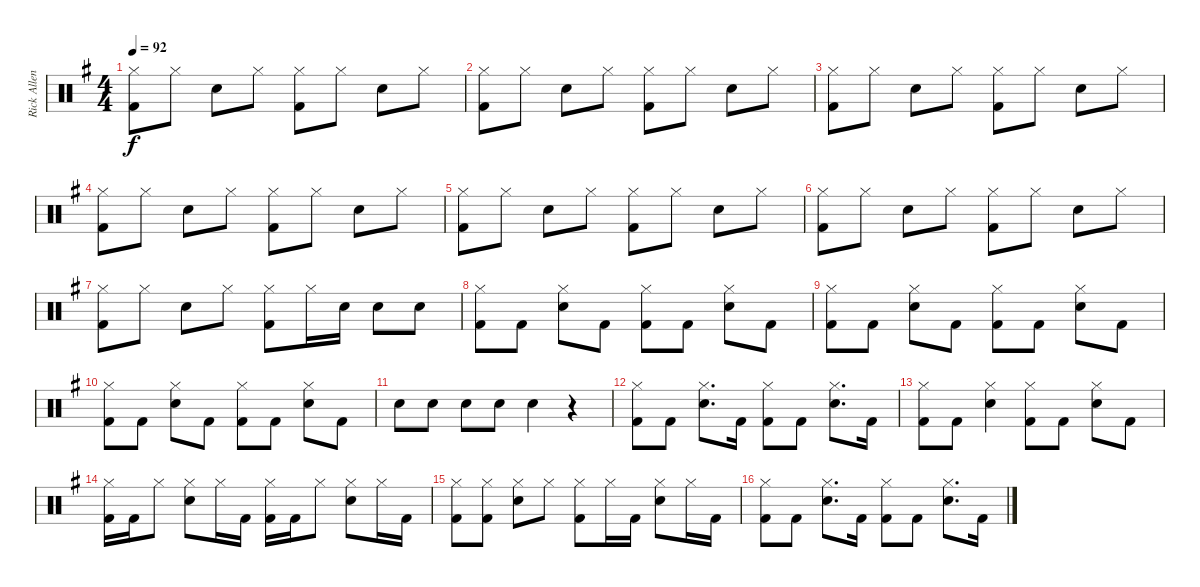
\track ("Rick Allen" "Rick Allen") {instrument percussion}
\staff {score}
\articulation defaults
\ts (4 4)
\tempo 92
\clef neutral
\ks eminor
("Hi-Hat (closed)" "Kick (hit) 2").8{dy f} "Hi-Hat (closed)".8 "Electric Snare (hit)".8 "Hi-Hat (closed)".8 ("Hi-Hat (closed)" "Kick (hit) 2").8 "Hi-Hat (closed)".8 "Electric Snare (hit)".8 "Hi-Hat (closed)".8 |
("Hi-Hat (closed)" "Kick (hit) 2").8 "Hi-Hat (closed)".8 "Electric Snare (hit)".8 "Hi-Hat (closed)".8 ("Hi-Hat (closed)" "Kick (hit) 2").8 "Hi-Hat (closed)".8 "Electric Snare (hit)".8 "Hi-Hat (closed)".8 |
("Hi-Hat (closed)" "Kick (hit) 2").8 "Hi-Hat (closed)".8 "Electric Snare (hit)".8 "Hi-Hat (closed)".8 ("Hi-Hat (closed)" "Kick (hit) 2").8 "Hi-Hat (closed)".8 "Electric Snare (hit)".8 "Hi-Hat (closed)".8 |
("Hi-Hat (closed)" "Kick (hit) 2").8 "Hi-Hat (closed)".8 "Electric Snare (hit)".8 "Hi-Hat (closed)".8 ("Hi-Hat (closed)" "Kick (hit) 2").8 "Hi-Hat (closed)".8 "Electric Snare (hit)".8 "Hi-Hat (closed)".8 |
("Hi-Hat (closed)" "Kick (hit) 2").8 "Hi-Hat (closed)".8 "Electric Snare (hit)".8 "Hi-Hat (closed)".8 ("Hi-Hat (closed)" "Kick (hit) 2").8 "Hi-Hat (closed)".8 "Electric Snare (hit)".8 "Hi-Hat (closed)".8 |
("Hi-Hat (closed)" "Kick (hit) 2").8 "Hi-Hat (closed)".8 "Electric Snare (hit)".8 "Hi-Hat (closed)".8 ("Hi-Hat (closed)" "Kick (hit) 2").8 "Hi-Hat (closed)".8 "Electric Snare (hit)".8 "Hi-Hat (closed)".8 |
("Hi-Hat (closed)" "Kick (hit) 2").8 "Hi-Hat (closed)".8 "Electric Snare (hit)".8 "Hi-Hat (closed)".8 ("Hi-Hat (closed)" "Kick (hit) 2").8 "Hi-Hat (closed)".16 "Electric Snare (hit)".16 "Electric Snare (hit)".8 "Electric Snare (hit)".8 |
("Hi-Hat (closed)" "Kick (hit) 2").8 "Kick (hit) 2".8 ("Hi-Hat (closed)" "Electric Snare (hit)").8 "Kick (hit) 2".8 ("Hi-Hat (closed)" "Kick (hit) 2").8 "Kick (hit) 2".8 ("Hi-Hat (closed)" "Electric Snare (hit)").8 "Kick (hit) 2".8 |
("Hi-Hat (closed)" "Kick (hit) 2").8 "Kick (hit) 2".8 ("Hi-Hat (closed)" "Electric Snare (hit)").8 "Kick (hit) 2".8 ("Hi-Hat (closed)" "Kick (hit) 2").8 "Kick (hit) 2".8 ("Hi-Hat (closed)" "Electric Snare (hit)").8 "Kick (hit) 2".8 |
("Hi-Hat (closed)" "Kick (hit) 2").8 "Kick (hit) 2".8 ("Hi-Hat (closed)" "Electric Snare (hit)").8 "Kick (hit) 2".8 ("Hi-Hat (closed)" "Kick (hit) 2").8 "Kick (hit) 2".8 ("Hi-Hat (closed)" "Electric Snare (hit)").8 "Kick (hit) 2".8 |
"Electric Snare (hit)".8 "Electric Snare (hit)".8 "Electric Snare (hit)".8 "Electric Snare (hit)".8 "Electric Snare (hit)".4 r.4 |
("Hi-Hat (closed)" "Kick (hit) 2").8 "Kick (hit) 2".8 ("Hi-Hat (closed)" "Electric Snare (hit)").8{d} "Kick (hit) 2".16 ("Hi-Hat (closed)" "Kick (hit) 2").8 "Kick (hit) 2".8 ("Hi-Hat (closed)" "Electric Snare (hit)").8{d} "Kick (hit) 2".16 |
("Hi-Hat (closed)" "Kick (hit) 2").8 "Kick (hit) 2".8 ("Hi-Hat (closed)" "Electric Snare (hit)").4 ("Hi-Hat (closed)" "Kick (hit) 2").8 "Kick (hit) 2".8 ("Hi-Hat (closed)" "Electric Snare (hit)").8 "Kick (hit) 2".8 |
("Hi-Hat (closed)" "Kick (hit) 2").16 "Kick (hit) 2".16 "Hi-Hat (closed)".8 ("Hi-Hat (closed)" "Electric Snare (hit)").8 "Hi-Hat (closed)".16 "Kick (hit) 2".16 ("Hi-Hat (closed)" "Kick (hit) 2").16 "Kick (hit) 2".16 "Hi-Hat (closed)".8 ("Hi-Hat (closed)" "Electric Snare (hit)").8 "Hi-Hat (closed)".16 "Kick (hit) 2".16 |
("Hi-Hat (closed)" "Kick (hit) 2").8 ("Hi-Hat (closed)" "Kick (hit) 2").8 ("Hi-Hat (closed)" "Electric Snare (hit)").8 "Hi-Hat (closed)".8 ("Hi-Hat (closed)" "Kick (hit) 2").8 "Hi-Hat (closed)".16 "Kick (hit) 2".16 ("Hi-Hat (closed)" "Electric Snare (hit)").8 "Hi-Hat (closed)".16 "Kick (hit) 2".16 |
("Hi-Hat (closed)" "Kick (hit) 2").8 "Kick (hit) 2".8 ("Hi-Hat (closed)" "Electric Snare (hit)").8{d} "Kick (hit) 2".16 ("Hi-Hat (closed)" "Kick (hit) 2").8 "Kick (hit) 2".8 ("Hi-Hat (closed)" "Electric Snare (hit)").8{d} "Kick (hit) 2".16
